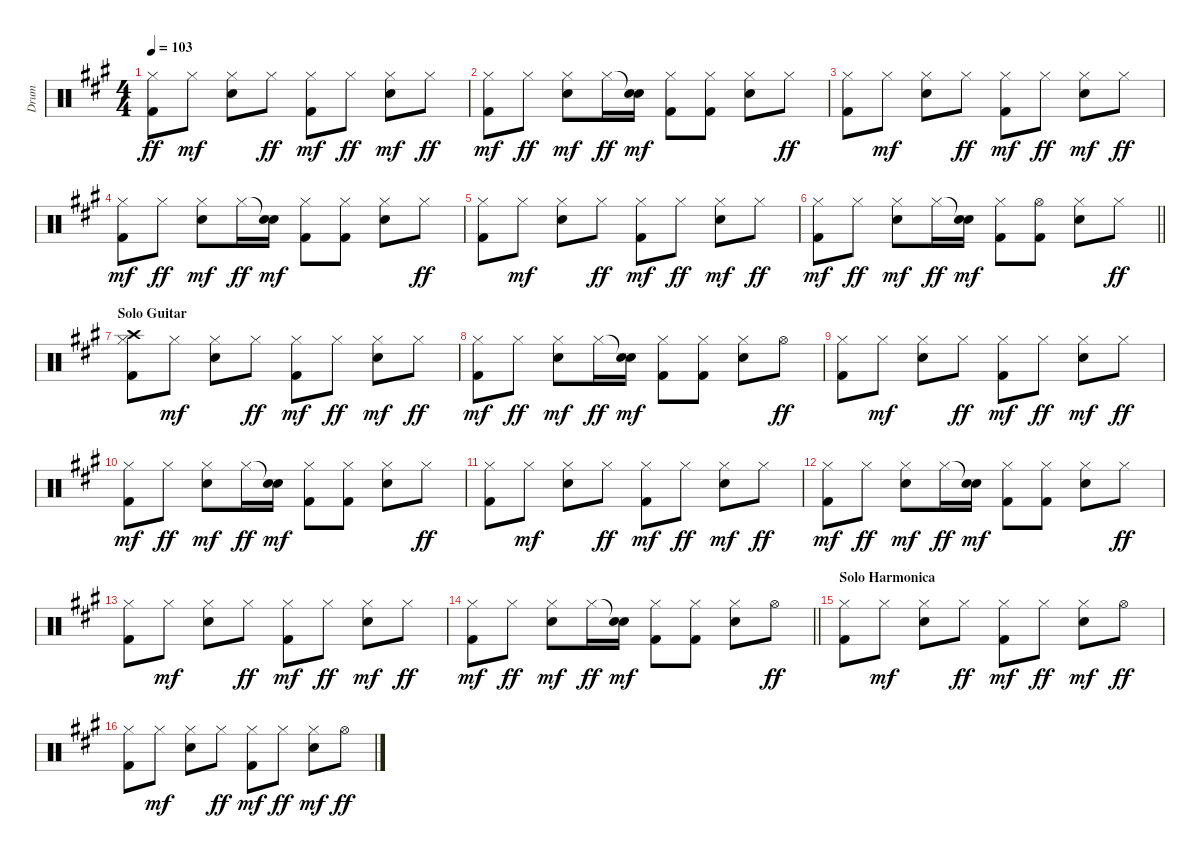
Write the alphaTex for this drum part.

\track ("Drum" "Drum") {instrument percussion}
\staff {score}
\articulation defaults
\ts (4 4)
\tempo 103
\clef neutral
\ks a
("Hi-Hat (closed)" "Kick (hit) 2").8{dy ff} "Hi-Hat (closed)".8{dy mf} ("Hi-Hat (closed)" "Electric Snare (hit)").8 "Hi-Hat (closed)".8{dy ff} ("Hi-Hat (closed)" "Kick (hit) 2").8{dy mf} "Hi-Hat (closed)".8{dy ff} ("Hi-Hat (closed)" "Electric Snare (hit)").8{dy mf} "Hi-Hat (closed)".8{dy ff} |
("Hi-Hat (closed)" "Kick (hit) 2").8{dy mf} "Hi-Hat (closed)".8{dy ff} ("Hi-Hat (closed)" "Electric Snare (hit)").8{dy mf} "Hi-Hat (closed)".16{dy ff} ("Snare (hit)"{t} "Electric Snare (hit)").16{dy mf} ("Hi-Hat (closed)" "Kick (hit) 2").8 ("Hi-Hat (closed)" "Kick (hit) 2").8 ("Hi-Hat (closed)" "Electric Snare (hit)").8 "Hi-Hat (closed)".8{dy ff} |
("Hi-Hat (closed)" "Kick (hit) 2").8 "Hi-Hat (closed)".8{dy mf} ("Hi-Hat (closed)" "Electric Snare (hit)").8 "Hi-Hat (closed)".8{dy ff} ("Hi-Hat (closed)" "Kick (hit) 2").8{dy mf} "Hi-Hat (closed)".8{dy ff} ("Hi-Hat (closed)" "Electric Snare (hit)").8{dy mf} "Hi-Hat (closed)".8{dy ff} |
("Hi-Hat (closed)" "Kick (hit) 2").8{dy mf} "Hi-Hat (closed)".8{dy ff} ("Hi-Hat (closed)" "Electric Snare (hit)").8{dy mf} "Hi-Hat (closed)".16{dy ff} ("Snare (hit)"{t} "Electric Snare (hit)").16{dy mf} ("Hi-Hat (closed)" "Kick (hit) 2").8 ("Hi-Hat (closed)" "Kick (hit) 2").8 ("Hi-Hat (closed)" "Electric Snare (hit)").8 "Hi-Hat (closed)".8{dy ff} |
("Hi-Hat (closed)" "Kick (hit) 2").8 "Hi-Hat (closed)".8{dy mf} ("Hi-Hat (closed)" "Electric Snare (hit)").8 "Hi-Hat (closed)".8{dy ff} ("Hi-Hat (closed)" "Kick (hit) 2").8{dy mf} "Hi-Hat (closed)".8{dy ff} ("Hi-Hat (closed)" "Electric Snare (hit)").8{dy mf} "Hi-Hat (closed)".8{dy ff} |
\barLineRight lightlight
("Hi-Hat (closed)" "Kick (hit) 2").8{dy mf} "Hi-Hat (closed)".8{dy ff} ("Hi-Hat (closed)" "Electric Snare (hit)").8{dy mf} "Hi-Hat (closed)".16{dy ff} ("Snare (hit)"{t} "Electric Snare (hit)").16{dy mf} ("Hi-Hat (closed)" "Kick (hit) 2").8 ("Hi-Hat (open)" "Kick (hit) 2").8 ("Hi-Hat (closed)" "Electric Snare (hit)").8 "Hi-Hat (closed)".8{dy ff} |
\section ("" "Solo Guitar")
("Crash high (hit)" "Hi-Hat (closed)" "Kick (hit) 2").8 "Hi-Hat (closed)".8{dy mf} ("Hi-Hat (closed)" "Electric Snare (hit)").8 "Hi-Hat (closed)".8{dy ff} ("Hi-Hat (closed)" "Kick (hit) 2").8{dy mf} "Hi-Hat (closed)".8{dy ff} ("Hi-Hat (closed)" "Electric Snare (hit)").8{dy mf} "Hi-Hat (closed)".8{dy ff} |
("Hi-Hat (closed)" "Kick (hit) 2").8{dy mf} "Hi-Hat (closed)".8{dy ff} ("Hi-Hat (closed)" "Electric Snare (hit)").8{dy mf} "Hi-Hat (closed)".16{dy ff} ("Snare (hit)"{t} "Electric Snare (hit)").16{dy mf} ("Hi-Hat (closed)" "Kick (hit) 2").8 ("Hi-Hat (closed)" "Kick (hit) 2").8 ("Hi-Hat (closed)" "Electric Snare (hit)").8 "Hi-Hat (open)".8{dy ff} |
("Hi-Hat (closed)" "Kick (hit) 2").8 "Hi-Hat (closed)".8{dy mf} ("Hi-Hat (closed)" "Electric Snare (hit)").8 "Hi-Hat (closed)".8{dy ff} ("Hi-Hat (closed)" "Kick (hit) 2").8{dy mf} "Hi-Hat (closed)".8{dy ff} ("Hi-Hat (closed)" "Electric Snare (hit)").8{dy mf} "Hi-Hat (closed)".8{dy ff} |
("Hi-Hat (closed)" "Kick (hit) 2").8{dy mf} "Hi-Hat (closed)".8{dy ff} ("Hi-Hat (closed)" "Electric Snare (hit)").8{dy mf} "Hi-Hat (closed)".16{dy ff} ("Snare (hit)"{t} "Electric Snare (hit)").16{dy mf} ("Hi-Hat (closed)" "Kick (hit) 2").8 ("Hi-Hat (closed)" "Kick (hit) 2").8 ("Hi-Hat (closed)" "Electric Snare (hit)").8 "Hi-Hat (closed)".8{dy ff} |
("Hi-Hat (closed)" "Kick (hit) 2").8 "Hi-Hat (closed)".8{dy mf} ("Hi-Hat (closed)" "Electric Snare (hit)").8 "Hi-Hat (closed)".8{dy ff} ("Hi-Hat (closed)" "Kick (hit) 2").8{dy mf} "Hi-Hat (closed)".8{dy ff} ("Hi-Hat (closed)" "Electric Snare (hit)").8{dy mf} "Hi-Hat (closed)".8{dy ff} |
("Hi-Hat (closed)" "Kick (hit) 2").8{dy mf} "Hi-Hat (closed)".8{dy ff} ("Hi-Hat (closed)" "Electric Snare (hit)").8{dy mf} "Hi-Hat (closed)".16{dy ff} ("Snare (hit)"{t} "Electric Snare (hit)").16{dy mf} ("Hi-Hat (closed)" "Kick (hit) 2").8 ("Hi-Hat (closed)" "Kick (hit) 2").8 ("Hi-Hat (closed)" "Electric Snare (hit)").8 "Hi-Hat (closed)".8{dy ff} |
("Hi-Hat (closed)" "Kick (hit) 2").8 "Hi-Hat (closed)".8{dy mf} ("Hi-Hat (closed)" "Electric Snare (hit)").8 "Hi-Hat (closed)".8{dy ff} ("Hi-Hat (closed)" "Kick (hit) 2").8{dy mf} "Hi-Hat (closed)".8{dy ff} ("Hi-Hat (closed)" "Electric Snare (hit)").8{dy mf} "Hi-Hat (closed)".8{dy ff} |
\barLineRight lightlight
("Hi-Hat (closed)" "Kick (hit) 2").8{dy mf} "Hi-Hat (closed)".8{dy ff} ("Hi-Hat (closed)" "Electric Snare (hit)").8{dy mf} "Hi-Hat (closed)".16{dy ff} ("Snare (hit)"{t} "Electric Snare (hit)").16{dy mf} ("Hi-Hat (closed)" "Kick (hit) 2").8 ("Hi-Hat (closed)" "Kick (hit) 2").8 ("Hi-Hat (closed)" "Electric Snare (hit)").8 "Hi-Hat (open)".8{dy ff} |
\section ("" "Solo Harmonica")
("Hi-Hat (closed)" "Kick (hit) 2").8 "Hi-Hat (closed)".8{dy mf} ("Hi-Hat (closed)" "Electric Snare (hit)").8 "Hi-Hat (closed)".8{dy ff} ("Hi-Hat (closed)" "Kick (hit) 2").8{dy mf} "Hi-Hat (closed)".8{dy ff} ("Hi-Hat (closed)" "Electric Snare (hit)").8{dy mf} "Hi-Hat (open)".8{dy ff} |
("Hi-Hat (closed)" "Kick (hit) 2").8 "Hi-Hat (closed)".8{dy mf} ("Hi-Hat (closed)" "Electric Snare (hit)").8 "Hi-Hat (closed)".8{dy ff} ("Hi-Hat (closed)" "Kick (hit) 2").8{dy mf} "Hi-Hat (closed)".8{dy ff} ("Hi-Hat (closed)" "Electric Snare (hit)").8{dy mf} "Hi-Hat (open)".8{dy ff}
